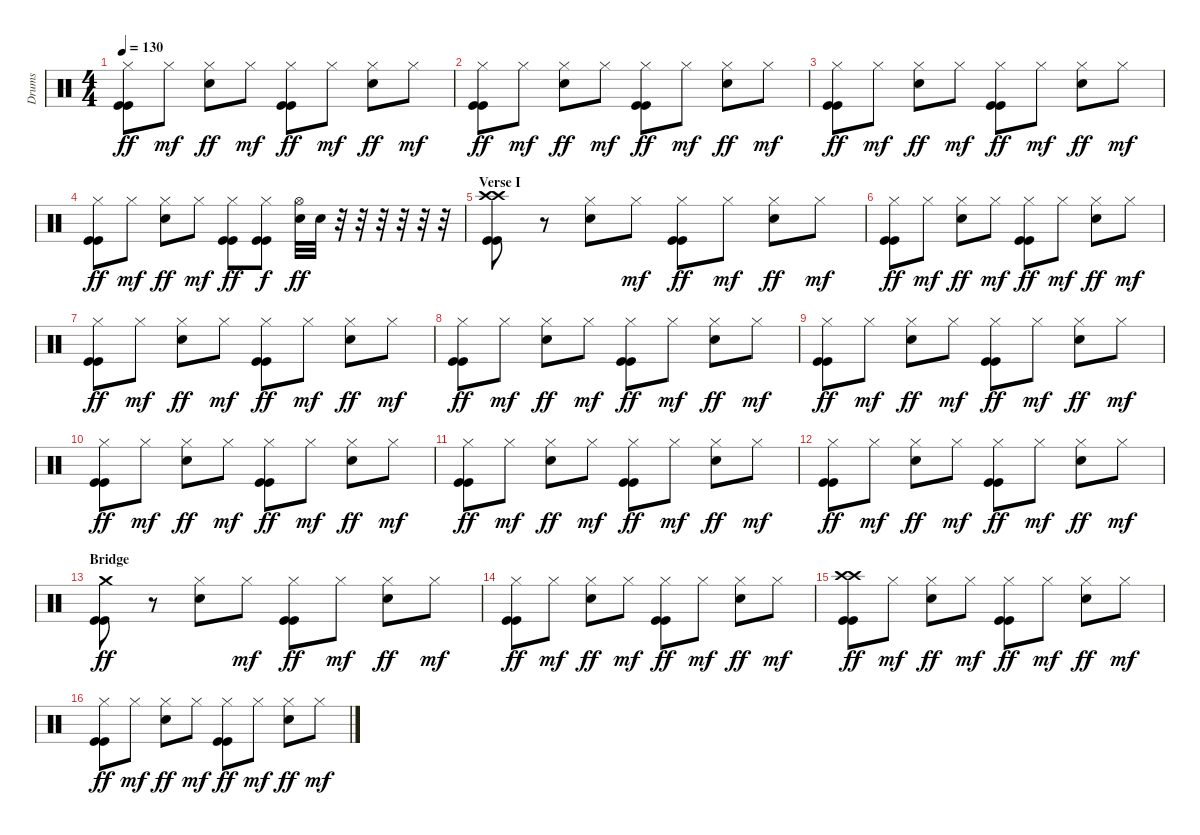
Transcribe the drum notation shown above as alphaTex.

\track ("Drums" "Drums") {instrument percussion}
\staff {score}
\articulation defaults
\ts (4 4)
\tempo 130
\clef neutral
\ks c
("Hi-Hat (closed)" "Kick (hit)" "Kick (hit)").8{dy ff} "Hi-Hat (closed)".8{dy mf} ("Hi-Hat (closed)" "Snare (hit) 2").8{dy ff} "Hi-Hat (closed)".8{dy mf} ("Hi-Hat (closed)" "Kick (hit)" "Kick (hit)").8{dy ff} "Hi-Hat (closed)".8{dy mf} ("Hi-Hat (closed)" "Snare (hit) 2").8{dy ff} "Hi-Hat (closed)".8{dy mf} |
("Hi-Hat (closed)" "Kick (hit)" "Kick (hit)").8{dy ff} "Hi-Hat (closed)".8{dy mf} ("Hi-Hat (closed)" "Snare (hit) 2").8{dy ff} "Hi-Hat (closed)".8{dy mf} ("Hi-Hat (closed)" "Kick (hit)" "Kick (hit)").8{dy ff} "Hi-Hat (closed)".8{dy mf} ("Hi-Hat (closed)" "Snare (hit) 2").8{dy ff} "Hi-Hat (closed)".8{dy mf} |
("Hi-Hat (closed)" "Kick (hit)" "Kick (hit)").8{dy ff} "Hi-Hat (closed)".8{dy mf} ("Hi-Hat (closed)" "Snare (hit) 2").8{dy ff} "Hi-Hat (closed)".8{dy mf} ("Hi-Hat (closed)" "Kick (hit)" "Kick (hit)").8{dy ff} "Hi-Hat (closed)".8{dy mf} ("Hi-Hat (closed)" "Snare (hit) 2").8{dy ff} "Hi-Hat (closed)".8{dy mf} |
("Hi-Hat (closed)" "Kick (hit)" "Kick (hit)").8{dy ff} "Hi-Hat (closed)".8{dy mf} ("Hi-Hat (closed)" "Snare (hit) 2").8{dy ff} "Hi-Hat (closed)".8{dy mf} ("Hi-Hat (closed)" "Kick (hit)" "Kick (hit)").8{dy ff} ("Hi-Hat (closed)" "Kick (hit)" "Kick (hit)").8{dy f} ("Hi-Hat (open)" "Snare (hit) 2").32{dy ff} "Snare (hit) 2".32 r.32 r.32 r.32 r.32 r.32 r.32 |
\section ("" "Verse I")
("Crash high (hit)" "Crash high (hit)" "Kick (hit)" "Kick (hit)").8 r.8 ("Hi-Hat (closed)" "Snare (hit) 2").8 "Hi-Hat (closed)".8{dy mf} ("Hi-Hat (closed)" "Kick (hit)" "Kick (hit)").8{dy ff} "Hi-Hat (closed)".8{dy mf} ("Hi-Hat (closed)" "Snare (hit) 2").8{dy ff} "Hi-Hat (closed)".8{dy mf} |
("Hi-Hat (closed)" "Kick (hit)" "Kick (hit)").8{dy ff} "Hi-Hat (closed)".8{dy mf} ("Hi-Hat (closed)" "Snare (hit) 2").8{dy ff} "Hi-Hat (closed)".8{dy mf} ("Hi-Hat (closed)" "Kick (hit)" "Kick (hit)").8{dy ff} "Hi-Hat (closed)".8{dy mf} ("Hi-Hat (closed)" "Snare (hit) 2").8{dy ff} "Hi-Hat (closed)".8{dy mf} |
("Hi-Hat (closed)" "Kick (hit)" "Kick (hit)").8{dy ff} "Hi-Hat (closed)".8{dy mf} ("Hi-Hat (closed)" "Snare (hit) 2").8{dy ff} "Hi-Hat (closed)".8{dy mf} ("Hi-Hat (closed)" "Kick (hit)" "Kick (hit)").8{dy ff} "Hi-Hat (closed)".8{dy mf} ("Hi-Hat (closed)" "Snare (hit) 2").8{dy ff} "Hi-Hat (closed)".8{dy mf} |
("Hi-Hat (closed)" "Kick (hit)" "Kick (hit)").8{dy ff} "Hi-Hat (closed)".8{dy mf} ("Hi-Hat (closed)" "Snare (hit) 2").8{dy ff} "Hi-Hat (closed)".8{dy mf} ("Hi-Hat (closed)" "Kick (hit)" "Kick (hit)").8{dy ff} "Hi-Hat (closed)".8{dy mf} ("Hi-Hat (closed)" "Snare (hit) 2").8{dy ff} "Hi-Hat (closed)".8{dy mf} |
("Hi-Hat (closed)" "Kick (hit)" "Kick (hit)").8{dy ff} "Hi-Hat (closed)".8{dy mf} ("Hi-Hat (closed)" "Snare (hit) 2").8{dy ff} "Hi-Hat (closed)".8{dy mf} ("Hi-Hat (closed)" "Kick (hit)" "Kick (hit)").8{dy ff} "Hi-Hat (closed)".8{dy mf} ("Hi-Hat (closed)" "Snare (hit) 2").8{dy ff} "Hi-Hat (closed)".8{dy mf} |
("Hi-Hat (closed)" "Kick (hit)" "Kick (hit)").8{dy ff} "Hi-Hat (closed)".8{dy mf} ("Hi-Hat (closed)" "Snare (hit) 2").8{dy ff} "Hi-Hat (closed)".8{dy mf} ("Hi-Hat (closed)" "Kick (hit)" "Kick (hit)").8{dy ff} "Hi-Hat (closed)".8{dy mf} ("Hi-Hat (closed)" "Snare (hit) 2").8{dy ff} "Hi-Hat (closed)".8{dy mf} |
("Hi-Hat (closed)" "Kick (hit)" "Kick (hit)").8{dy ff} "Hi-Hat (closed)".8{dy mf} ("Hi-Hat (closed)" "Snare (hit) 2").8{dy ff} "Hi-Hat (closed)".8{dy mf} ("Hi-Hat (closed)" "Kick (hit)" "Kick (hit)").8{dy ff} "Hi-Hat (closed)".8{dy mf} ("Hi-Hat (closed)" "Snare (hit) 2").8{dy ff} "Hi-Hat (closed)".8{dy mf} |
("Hi-Hat (closed)" "Kick (hit)" "Kick (hit)").8{dy ff} "Hi-Hat (closed)".8{dy mf} ("Hi-Hat (closed)" "Snare (hit) 2").8{dy ff} "Hi-Hat (closed)".8{dy mf} ("Hi-Hat (closed)" "Kick (hit)" "Kick (hit)").8{dy ff} "Hi-Hat (closed)".8{dy mf} ("Hi-Hat (closed)" "Snare (hit) 2").8{dy ff} "Hi-Hat (closed)".8{dy mf} |
\section ("" "Bridge")
("Crash medium (hit)" "Kick (hit)" "Kick (hit)").8{dy ff} r.8 ("Hi-Hat (closed)" "Snare (hit) 2").8 "Hi-Hat (closed)".8{dy mf} ("Hi-Hat (closed)" "Kick (hit)" "Kick (hit)").8{dy ff} "Hi-Hat (closed)".8{dy mf} ("Hi-Hat (closed)" "Snare (hit) 2").8{dy ff} "Hi-Hat (closed)".8{dy mf} |
("Hi-Hat (closed)" "Kick (hit)" "Kick (hit)").8{dy ff} "Hi-Hat (closed)".8{dy mf} ("Hi-Hat (closed)" "Snare (hit) 2").8{dy ff} "Hi-Hat (closed)".8{dy mf} ("Hi-Hat (closed)" "Kick (hit)" "Kick (hit)").8{dy ff} "Hi-Hat (closed)".8{dy mf} ("Hi-Hat (closed)" "Snare (hit) 2").8{dy ff} "Hi-Hat (closed)".8{dy mf} |
("Crash high (hit)" "Crash high (hit)" "Kick (hit)" "Kick (hit)").8{dy ff} "Hi-Hat (closed)".8{dy mf} ("Hi-Hat (closed)" "Snare (hit) 2").8{dy ff} "Hi-Hat (closed)".8{dy mf} ("Hi-Hat (closed)" "Kick (hit)" "Kick (hit)").8{dy ff} "Hi-Hat (closed)".8{dy mf} ("Hi-Hat (closed)" "Snare (hit) 2").8{dy ff} "Hi-Hat (closed)".8{dy mf} |
("Hi-Hat (closed)" "Kick (hit)" "Kick (hit)").8{dy ff} "Hi-Hat (closed)".8{dy mf} ("Hi-Hat (closed)" "Snare (hit) 2").8{dy ff} "Hi-Hat (closed)".8{dy mf} ("Hi-Hat (closed)" "Kick (hit)" "Kick (hit)").8{dy ff} "Hi-Hat (closed)".8{dy mf} ("Hi-Hat (closed)" "Snare (hit) 2").8{dy ff} "Hi-Hat (closed)".8{dy mf}
